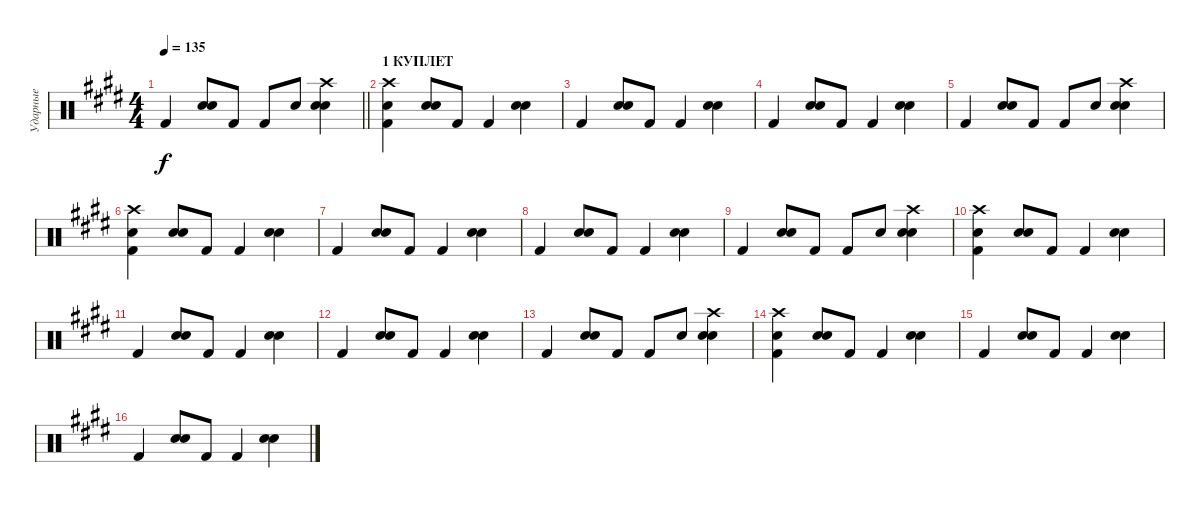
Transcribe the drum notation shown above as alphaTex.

\track ("Ударные" "Ударные") {instrument percussion}
\staff {score}
\articulation defaults
\ts (4 4)
\tempo 135
\clef neutral
\barLineRight lightlight
\ks c#minor "Kick (hit) 2".4{dy f}
("Snare (hit) 2" "Electric Snare (hit)").8 "Kick (hit) 2".8 "Kick (hit) 2".8 "Electric Snare (hit)".8 ("Crash high (hit)" "Snare (hit) 2" "Electric Snare (hit)").4 |
\section ("" "1 КУПЛЕТ")
("Crash high (hit)" "Electric Snare (hit)" "Kick (hit) 2").4 ("Snare (hit) 2" "Electric Snare (hit)").8 "Kick (hit) 2".8 "Kick (hit) 2".4 ("Snare (hit) 2" "Electric Snare (hit)").4 |
"Kick (hit) 2".4 ("Snare (hit) 2" "Electric Snare (hit)").8 "Kick (hit) 2".8 "Kick (hit) 2".4 ("Snare (hit) 2" "Electric Snare (hit)").4 |
"Kick (hit) 2".4 ("Snare (hit) 2" "Electric Snare (hit)").8 "Kick (hit) 2".8 "Kick (hit) 2".4 ("Snare (hit) 2" "Electric Snare (hit)").4 |
"Kick (hit) 2".4 ("Snare (hit) 2" "Electric Snare (hit)").8 "Kick (hit) 2".8 "Kick (hit) 2".8 "Electric Snare (hit)".8 ("Crash high (hit)" "Snare (hit) 2" "Electric Snare (hit)").4 |
("Crash high (hit)" "Electric Snare (hit)" "Kick (hit) 2").4 ("Snare (hit) 2" "Electric Snare (hit)").8 "Kick (hit) 2".8 "Kick (hit) 2".4 ("Snare (hit) 2" "Electric Snare (hit)").4 |
"Kick (hit) 2".4 ("Snare (hit) 2" "Electric Snare (hit)").8 "Kick (hit) 2".8 "Kick (hit) 2".4 ("Snare (hit) 2" "Electric Snare (hit)").4 |
"Kick (hit) 2".4 ("Snare (hit) 2" "Electric Snare (hit)").8 "Kick (hit) 2".8 "Kick (hit) 2".4 ("Snare (hit) 2" "Electric Snare (hit)").4 |
"Kick (hit) 2".4 ("Snare (hit) 2" "Electric Snare (hit)").8 "Kick (hit) 2".8 "Kick (hit) 2".8 "Electric Snare (hit)".8 ("Crash high (hit)" "Snare (hit) 2" "Electric Snare (hit)").4 |
("Crash high (hit)" "Electric Snare (hit)" "Kick (hit) 2").4 ("Snare (hit) 2" "Electric Snare (hit)").8 "Kick (hit) 2".8 "Kick (hit) 2".4 ("Snare (hit) 2" "Electric Snare (hit)").4 |
"Kick (hit) 2".4 ("Snare (hit) 2" "Electric Snare (hit)").8 "Kick (hit) 2".8 "Kick (hit) 2".4 ("Snare (hit) 2" "Electric Snare (hit)").4 |
"Kick (hit) 2".4 ("Snare (hit) 2" "Electric Snare (hit)").8 "Kick (hit) 2".8 "Kick (hit) 2".4 ("Snare (hit) 2" "Electric Snare (hit)").4 |
"Kick (hit) 2".4 ("Snare (hit) 2" "Electric Snare (hit)").8 "Kick (hit) 2".8 "Kick (hit) 2".8 "Electric Snare (hit)".8 ("Crash high (hit)" "Snare (hit) 2" "Electric Snare (hit)").4 |
("Crash high (hit)" "Electric Snare (hit)" "Kick (hit) 2").4 ("Snare (hit) 2" "Electric Snare (hit)").8 "Kick (hit) 2".8 "Kick (hit) 2".4 ("Snare (hit) 2" "Electric Snare (hit)").4 |
"Kick (hit) 2".4 ("Snare (hit) 2" "Electric Snare (hit)").8 "Kick (hit) 2".8 "Kick (hit) 2".4 ("Snare (hit) 2" "Electric Snare (hit)").4 |
"Kick (hit) 2".4 ("Snare (hit) 2" "Electric Snare (hit)").8 "Kick (hit) 2".8 "Kick (hit) 2".4 ("Snare (hit) 2" "Electric Snare (hit)").4
